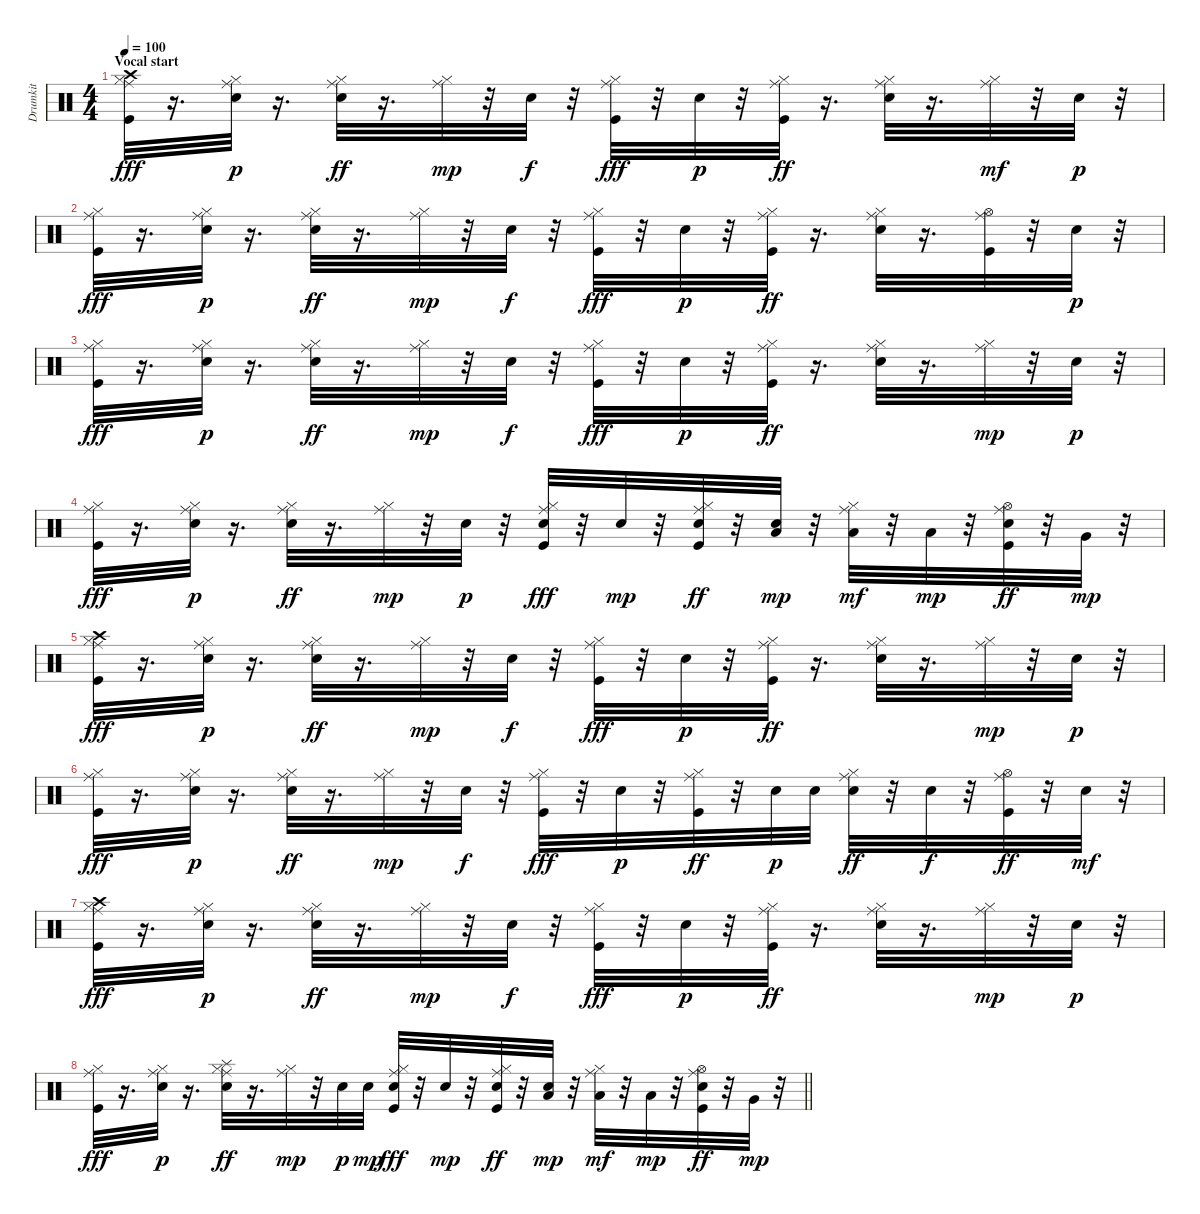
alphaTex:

\track ("Drumkit" "Drumkit") {instrument percussion}
\staff {score}
\articulation defaults
\ts (4 4)
\section ("" "Vocal start")
\tempo 100
\clef neutral
\ks c
("Kick (hit)" "Hi-Hat (closed)" "Crash high (hit)" "Ride (middle)").32{dy fff} r.16{d} ("Snare (hit) 2" "Hi-Hat (closed)" "Ride (middle)").32{dy p} r.16{d} ("Snare (hit) 2" "Hi-Hat (closed)" "Ride (middle)").32{dy ff} r.16{d} ("Hi-Hat (closed)" "Ride (middle)").32{dy mp} r.32 "Snare (hit) 2".32{dy f} r.32 ("Kick (hit)" "Hi-Hat (closed)" "Ride (middle)").32{dy fff} r.32 "Snare (hit) 2".32{dy p} r.32 ("Kick (hit)" "Hi-Hat (closed)" "Ride (middle)").32{dy ff} r.16{d} ("Snare (hit) 2" "Hi-Hat (closed)" "Ride (middle)").32 r.16{d} ("Hi-Hat (closed)" "Ride (middle)").32{dy mf} r.32 "Snare (hit) 2".32{dy p} r.32 |
("Kick (hit)" "Hi-Hat (closed)" "Ride (middle)").32{dy fff} r.16{d} ("Snare (hit) 2" "Hi-Hat (closed)" "Ride (middle)").32{dy p} r.16{d} ("Snare (hit) 2" "Hi-Hat (closed)" "Ride (middle)").32{dy ff} r.16{d} ("Hi-Hat (closed)" "Ride (middle)").32{dy mp} r.32 "Snare (hit) 2".32{dy f} r.32 ("Kick (hit)" "Hi-Hat (closed)" "Ride (middle)").32{dy fff} r.32 "Snare (hit) 2".32{dy p} r.32 ("Kick (hit)" "Hi-Hat (closed)" "Ride (middle)").32{dy ff} r.16{d} ("Snare (hit) 2" "Hi-Hat (closed)" "Ride (middle)").32 r.16{d} ("Kick (hit)" "Hi-Hat (open)" "Ride (middle)").32 r.32 "Snare (hit) 2".32{dy p} r.32 |
("Kick (hit)" "Hi-Hat (closed)" "Ride (middle)").32{dy fff} r.16{d} ("Snare (hit) 2" "Hi-Hat (closed)" "Ride (middle)").32{dy p} r.16{d} ("Snare (hit) 2" "Hi-Hat (closed)" "Ride (middle)").32{dy ff} r.16{d} ("Hi-Hat (closed)" "Ride (middle)").32{dy mp} r.32 "Snare (hit) 2".32{dy f} r.32 ("Kick (hit)" "Hi-Hat (closed)" "Ride (middle)").32{dy fff} r.32 "Snare (hit) 2".32{dy p} r.32 ("Kick (hit)" "Hi-Hat (closed)" "Ride (middle)").32{dy ff} r.16{d} ("Snare (hit) 2" "Hi-Hat (closed)" "Ride (middle)").32 r.16{d} ("Hi-Hat (closed)" "Ride (middle)").32{dy mp} r.32 "Snare (hit) 2".32{dy p} r.32 |
("Kick (hit)" "Hi-Hat (closed)" "Ride (middle)").32{dy fff} r.16{d} ("Snare (hit) 2" "Hi-Hat (closed)" "Ride (middle)").32{dy p} r.16{d} ("Snare (hit) 2" "Hi-Hat (closed)" "Ride (middle)").32{dy ff} r.16{d} ("Hi-Hat (closed)" "Ride (middle)").32{dy mp} r.32 "Snare (hit) 2".32{dy p} r.32 ("Kick (hit)" "Snare (hit) 2" "Hi-Hat (closed)" "Ride (middle)").32{dy fff} r.32 "Snare (hit) 2".32{dy mp} r.32 ("Kick (hit)" "Snare (hit) 2" "Hi-Hat (closed)" "Ride (middle)").32{dy ff} r.32 ("Snare (hit) 2" "Low Tom (hit)").32{dy mp} r.32 ("Hi-Hat (closed)" "Low Tom (hit)" "Ride (middle)").32{dy mf} r.32 "Low Tom (hit)".32{dy mp} r.32 ("Kick (hit)" "Snare (hit) 2" "Hi-Hat (open)" "Ride (middle)").32{dy ff} r.32 "Very Low Tom (hit)".32{dy mp} r.32 |
("Kick (hit)" "Hi-Hat (closed)" "Crash high (hit)" "Ride (middle)").32{dy fff} r.16{d} ("Snare (hit) 2" "Hi-Hat (closed)" "Ride (middle)").32{dy p} r.16{d} ("Snare (hit) 2" "Hi-Hat (closed)" "Ride (middle)").32{dy ff} r.16{d} ("Hi-Hat (closed)" "Ride (middle)").32{dy mp} r.32 "Snare (hit) 2".32{dy f} r.32 ("Kick (hit)" "Hi-Hat (closed)" "Ride (middle)").32{dy fff} r.32 "Snare (hit) 2".32{dy p} r.32 ("Kick (hit)" "Hi-Hat (closed)" "Ride (middle)").32{dy ff} r.16{d} ("Snare (hit) 2" "Hi-Hat (closed)" "Ride (middle)").32 r.16{d} ("Hi-Hat (closed)" "Ride (middle)").32{dy mp} r.32 "Snare (hit) 2".32{dy p} r.32 |
("Kick (hit)" "Hi-Hat (closed)" "Ride (middle)").32{dy fff} r.16{d} ("Snare (hit) 2" "Hi-Hat (closed)" "Ride (middle)").32{dy p} r.16{d} ("Snare (hit) 2" "Hi-Hat (closed)" "Ride (middle)").32{dy ff} r.16{d} ("Hi-Hat (closed)" "Ride (middle)").32{dy mp} r.32 "Snare (hit) 2".32{dy f} r.32 ("Kick (hit)" "Hi-Hat (closed)" "Ride (middle)").32{dy fff} r.32 "Snare (hit) 2".32{dy p} r.32 ("Kick (hit)" "Hi-Hat (closed)" "Ride (middle)").32{dy ff} r.32 "Snare (hit) 2".32{dy p} "Snare (hit) 2".32 ("Snare (hit) 2" "Hi-Hat (closed)" "Ride (middle)").32{dy ff} r.32 "Snare (hit) 2".32{dy f} r.32 ("Kick (hit)" "Hi-Hat (open)" "Ride (middle)").32{dy ff} r.32 "Snare (hit) 2".32{dy mf} r.32 |
("Kick (hit)" "Hi-Hat (closed)" "Crash high (hit)" "Ride (middle)").32{dy fff} r.16{d} ("Snare (hit) 2" "Hi-Hat (closed)" "Ride (middle)").32{dy p} r.16{d} ("Snare (hit) 2" "Hi-Hat (closed)" "Ride (middle)").32{dy ff} r.16{d} ("Hi-Hat (closed)" "Ride (middle)").32{dy mp} r.32 "Snare (hit) 2".32{dy f} r.32 ("Kick (hit)" "Hi-Hat (closed)" "Ride (middle)").32{dy fff} r.32 "Snare (hit) 2".32{dy p} r.32 ("Kick (hit)" "Hi-Hat (closed)" "Ride (middle)").32{dy ff} r.16{d} ("Snare (hit) 2" "Hi-Hat (closed)" "Ride (middle)").32 r.16{d} ("Hi-Hat (closed)" "Ride (middle)").32{dy mp} r.32 "Snare (hit) 2".32{dy p} r.32 |
\barLineRight lightlight
("Kick (hit)" "Hi-Hat (closed)" "Ride (middle)").32{dy fff} r.16{d} ("Snare (hit) 2" "Hi-Hat (closed)" "Ride (middle)").32{dy p} r.16{d} ("Snare (hit) 2" "Hi-Hat (closed)" "Ride (middle)" "Splash (hit)").32{dy ff} r.16{d} ("Hi-Hat (closed)" "Ride (middle)").32{dy mp} r.32 "Snare (hit) 2".32{dy p} "Snare (hit) 2".32{dy mp} ("Kick (hit)" "Snare (hit) 2" "Hi-Hat (closed)" "Ride (middle)").32{dy fff} r.32 "Snare (hit) 2".32{dy mp} r.32 ("Kick (hit)" "Snare (hit) 2" "Hi-Hat (closed)" "Ride (middle)").32{dy ff} r.32 ("Snare (hit) 2" "Low Tom (hit)").32{dy mp} r.32 ("Hi-Hat (closed)" "Low Tom (hit)" "Ride (middle)").32{dy mf} r.32 "Low Tom (hit)".32{dy mp} r.32 ("Kick (hit)" "Snare (hit) 2" "Hi-Hat (open)" "Ride (middle)").32{dy ff} r.32 "Very Low Tom (hit)".32{dy mp} r.32
